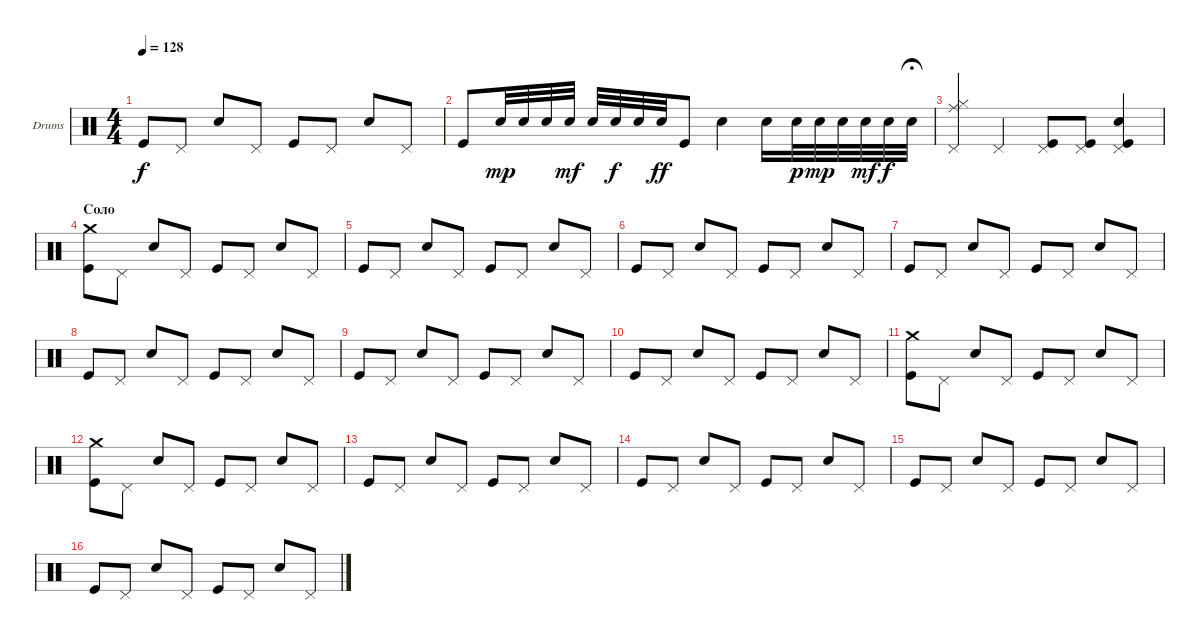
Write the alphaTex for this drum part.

\defaultSystemsLayout 4
\bracketExtendMode groupsimilarinstruments
\firstSystemTrackNameOrientation horizontal
\otherSystemsTrackNameOrientation horizontal
\track ("Е. Кулаков" "Drums") {instrument percussion}
\staff {score}
\articulation defaults
\ts (4 4)
\tempo 128
\clef neutral
\ks c "Kick (hit)".8{dy f} "Pedal Hi-Hat (hit)".8 "Snare (hit) 2".8 "Pedal Hi-Hat (hit)".8 "Kick (hit)".8 "Pedal Hi-Hat (hit)".8 "Snare (hit) 2".8 "Pedal Hi-Hat (hit)".8
|
"Kick (hit)".8 "Snare (hit) 2".32{dy mp} "Snare (hit) 2".32 "Snare (hit) 2".32 "Snare (hit) 2".32{dy mf} "Snare (hit) 2".32 "Snare (hit) 2".32{dy f} "Snare (hit) 2".32 "Snare (hit) 2".32{dy ff} "Kick (hit)".8 "Snare (hit) 2".4 "Snare (hit) 2".16 "Snare (hit) 2".32{dy p} "Snare (hit) 2".32{dy mp} "Snare (hit) 2".32 "Snare (hit) 2".32{dy mf} "Snare (hit) 2".32{dy f} "Snare (hit) 2".32{fermata (medium 0.5)} |
("Pedal Hi-Hat (hit)" "Hi-Hat (closed)" "Ride (middle)").4 "Pedal Hi-Hat (hit)".4 ("Pedal Hi-Hat (hit)" "Kick (hit)").8 ("Pedal Hi-Hat (hit)" "Kick (hit)").8 ("Pedal Hi-Hat (hit)" "Snare (hit) 2" "Kick (hit)").4 |
\section ("" "Соло")
("Kick (hit)" "Crash medium (hit)").8 "Pedal Hi-Hat (hit)".8 "Snare (hit) 2".8 "Pedal Hi-Hat (hit)".8 "Kick (hit)".8 "Pedal Hi-Hat (hit)".8 "Snare (hit) 2".8 "Pedal Hi-Hat (hit)".8 |
"Kick (hit)".8 "Pedal Hi-Hat (hit)".8 "Snare (hit) 2".8 "Pedal Hi-Hat (hit)".8 "Kick (hit)".8 "Pedal Hi-Hat (hit)".8 "Snare (hit) 2".8 "Pedal Hi-Hat (hit)".8 |
"Kick (hit)".8 "Pedal Hi-Hat (hit)".8 "Snare (hit) 2".8 "Pedal Hi-Hat (hit)".8 "Kick (hit)".8 "Pedal Hi-Hat (hit)".8 "Snare (hit) 2".8 "Pedal Hi-Hat (hit)".8 |
"Kick (hit)".8 "Pedal Hi-Hat (hit)".8 "Snare (hit) 2".8 "Pedal Hi-Hat (hit)".8 "Kick (hit)".8 "Pedal Hi-Hat (hit)".8 "Snare (hit) 2".8 "Pedal Hi-Hat (hit)".8 |
"Kick (hit)".8 "Pedal Hi-Hat (hit)".8 "Snare (hit) 2".8 "Pedal Hi-Hat (hit)".8 "Kick (hit)".8 "Pedal Hi-Hat (hit)".8 "Snare (hit) 2".8 "Pedal Hi-Hat (hit)".8 |
"Kick (hit)".8 "Pedal Hi-Hat (hit)".8 "Snare (hit) 2".8 "Pedal Hi-Hat (hit)".8 "Kick (hit)".8 "Pedal Hi-Hat (hit)".8 "Snare (hit) 2".8 "Pedal Hi-Hat (hit)".8 |
"Kick (hit)".8 "Pedal Hi-Hat (hit)".8 "Snare (hit) 2".8 "Pedal Hi-Hat (hit)".8 "Kick (hit)".8 "Pedal Hi-Hat (hit)".8 "Snare (hit) 2".8 "Pedal Hi-Hat (hit)".8 |
("Kick (hit)" "Crash medium (hit)").8 "Pedal Hi-Hat (hit)".8 "Snare (hit) 2".8 "Pedal Hi-Hat (hit)".8 "Kick (hit)".8 "Pedal Hi-Hat (hit)".8 "Snare (hit) 2".8 "Pedal Hi-Hat (hit)".8 |
("Kick (hit)" "Crash medium (hit)").8 "Pedal Hi-Hat (hit)".8 "Snare (hit) 2".8 "Pedal Hi-Hat (hit)".8 "Kick (hit)".8 "Pedal Hi-Hat (hit)".8 "Snare (hit) 2".8 "Pedal Hi-Hat (hit)".8 |
"Kick (hit)".8 "Pedal Hi-Hat (hit)".8 "Snare (hit) 2".8 "Pedal Hi-Hat (hit)".8 "Kick (hit)".8 "Pedal Hi-Hat (hit)".8 "Snare (hit) 2".8 "Pedal Hi-Hat (hit)".8 |
"Kick (hit)".8 "Pedal Hi-Hat (hit)".8 "Snare (hit) 2".8 "Pedal Hi-Hat (hit)".8 "Kick (hit)".8 "Pedal Hi-Hat (hit)".8 "Snare (hit) 2".8 "Pedal Hi-Hat (hit)".8 |
"Kick (hit)".8 "Pedal Hi-Hat (hit)".8 "Snare (hit) 2".8 "Pedal Hi-Hat (hit)".8 "Kick (hit)".8 "Pedal Hi-Hat (hit)".8 "Snare (hit) 2".8 "Pedal Hi-Hat (hit)".8 |
"Kick (hit)".8 "Pedal Hi-Hat (hit)".8 "Snare (hit) 2".8 "Pedal Hi-Hat (hit)".8 "Kick (hit)".8 "Pedal Hi-Hat (hit)".8 "Snare (hit) 2".8 "Pedal Hi-Hat (hit)".8
